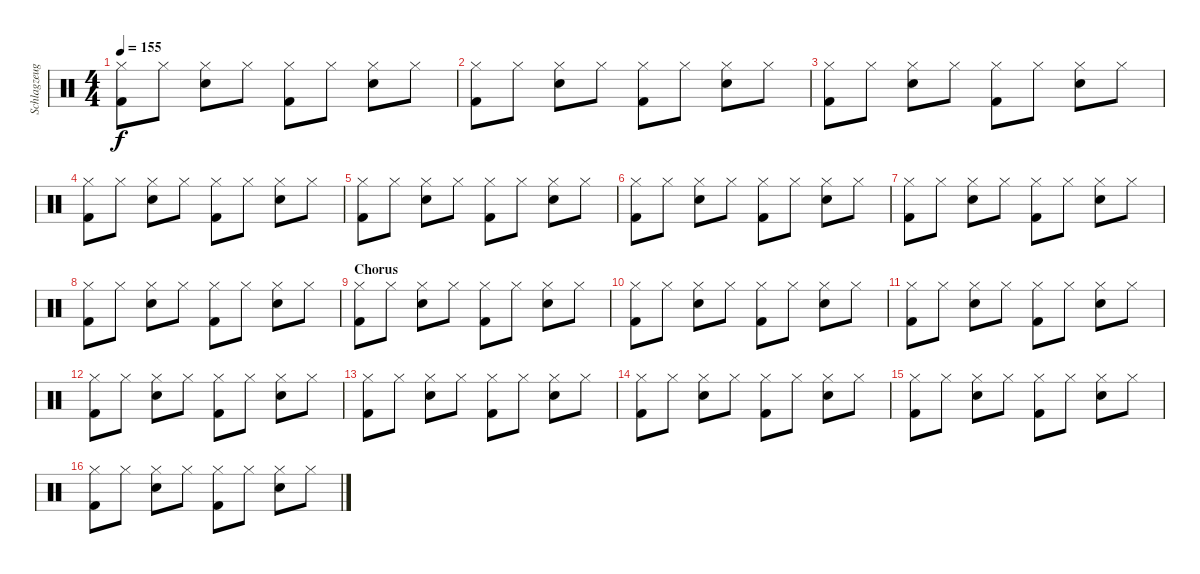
\track ("Schlagzeug - Bela B." "Schlagzeug") {instrument percussion}
\staff {score}
\articulation defaults
\ts (4 4)
\tempo 155
\clef neutral
\ks c
("Hi-Hat (closed)" "Kick (hit) 2").8{dy f} "Hi-Hat (closed)".8 ("Hi-Hat (closed)" "Snare (hit) 2").8 "Hi-Hat (closed)".8 ("Hi-Hat (closed)" "Kick (hit) 2").8 "Hi-Hat (closed)".8 ("Hi-Hat (closed)" "Snare (hit) 2").8 "Hi-Hat (closed)".8 |
("Hi-Hat (closed)" "Kick (hit) 2").8 "Hi-Hat (closed)".8 ("Hi-Hat (closed)" "Snare (hit) 2").8 "Hi-Hat (closed)".8 ("Hi-Hat (closed)" "Kick (hit) 2").8 "Hi-Hat (closed)".8 ("Hi-Hat (closed)" "Snare (hit) 2").8 "Hi-Hat (closed)".8 |
("Hi-Hat (closed)" "Kick (hit) 2").8 "Hi-Hat (closed)".8 ("Hi-Hat (closed)" "Snare (hit) 2").8 "Hi-Hat (closed)".8 ("Hi-Hat (closed)" "Kick (hit) 2").8 "Hi-Hat (closed)".8 ("Hi-Hat (closed)" "Snare (hit) 2").8 "Hi-Hat (closed)".8 |
("Hi-Hat (closed)" "Kick (hit) 2").8 "Hi-Hat (closed)".8 ("Hi-Hat (closed)" "Snare (hit) 2").8 "Hi-Hat (closed)".8 ("Hi-Hat (closed)" "Kick (hit) 2").8 "Hi-Hat (closed)".8 ("Hi-Hat (closed)" "Snare (hit) 2").8 "Hi-Hat (closed)".8 |
("Hi-Hat (closed)" "Kick (hit) 2").8 "Hi-Hat (closed)".8 ("Hi-Hat (closed)" "Snare (hit) 2").8 "Hi-Hat (closed)".8 ("Hi-Hat (closed)" "Kick (hit) 2").8 "Hi-Hat (closed)".8 ("Hi-Hat (closed)" "Snare (hit) 2").8 "Hi-Hat (closed)".8 |
("Hi-Hat (closed)" "Kick (hit) 2").8 "Hi-Hat (closed)".8 ("Hi-Hat (closed)" "Snare (hit) 2").8 "Hi-Hat (closed)".8 ("Hi-Hat (closed)" "Kick (hit) 2").8 "Hi-Hat (closed)".8 ("Hi-Hat (closed)" "Snare (hit) 2").8 "Hi-Hat (closed)".8 |
("Hi-Hat (closed)" "Kick (hit) 2").8 "Hi-Hat (closed)".8 ("Hi-Hat (closed)" "Snare (hit) 2").8 "Hi-Hat (closed)".8 ("Hi-Hat (closed)" "Kick (hit) 2").8 "Hi-Hat (closed)".8 ("Hi-Hat (closed)" "Snare (hit) 2").8 "Hi-Hat (closed)".8 |
("Hi-Hat (closed)" "Kick (hit) 2").8 "Hi-Hat (closed)".8 ("Hi-Hat (closed)" "Snare (hit) 2").8 "Hi-Hat (closed)".8 ("Hi-Hat (closed)" "Kick (hit) 2").8 "Hi-Hat (closed)".8 ("Hi-Hat (closed)" "Snare (hit) 2").8 "Hi-Hat (closed)".8 |
\section ("" "Chorus")
("Hi-Hat (closed)" "Kick (hit) 2").8 "Hi-Hat (closed)".8 ("Hi-Hat (closed)" "Snare (hit) 2").8 "Hi-Hat (closed)".8 ("Hi-Hat (closed)" "Kick (hit) 2").8 "Hi-Hat (closed)".8 ("Hi-Hat (closed)" "Snare (hit) 2").8 "Hi-Hat (closed)".8 |
("Hi-Hat (closed)" "Kick (hit) 2").8 "Hi-Hat (closed)".8 ("Hi-Hat (closed)" "Snare (hit) 2").8 "Hi-Hat (closed)".8 ("Hi-Hat (closed)" "Kick (hit) 2").8 "Hi-Hat (closed)".8 ("Hi-Hat (closed)" "Snare (hit) 2").8 "Hi-Hat (closed)".8 |
("Hi-Hat (closed)" "Kick (hit) 2").8 "Hi-Hat (closed)".8 ("Hi-Hat (closed)" "Snare (hit) 2").8 "Hi-Hat (closed)".8 ("Hi-Hat (closed)" "Kick (hit) 2").8 "Hi-Hat (closed)".8 ("Hi-Hat (closed)" "Snare (hit) 2").8 "Hi-Hat (closed)".8 |
("Hi-Hat (closed)" "Kick (hit) 2").8 "Hi-Hat (closed)".8 ("Hi-Hat (closed)" "Snare (hit) 2").8 "Hi-Hat (closed)".8 ("Hi-Hat (closed)" "Kick (hit) 2").8 "Hi-Hat (closed)".8 ("Hi-Hat (closed)" "Snare (hit) 2").8 "Hi-Hat (closed)".8 |
("Hi-Hat (closed)" "Kick (hit) 2").8 "Hi-Hat (closed)".8 ("Hi-Hat (closed)" "Snare (hit) 2").8 "Hi-Hat (closed)".8 ("Hi-Hat (closed)" "Kick (hit) 2").8 "Hi-Hat (closed)".8 ("Hi-Hat (closed)" "Snare (hit) 2").8 "Hi-Hat (closed)".8 |
("Hi-Hat (closed)" "Kick (hit) 2").8 "Hi-Hat (closed)".8 ("Hi-Hat (closed)" "Snare (hit) 2").8 "Hi-Hat (closed)".8 ("Hi-Hat (closed)" "Kick (hit) 2").8 "Hi-Hat (closed)".8 ("Hi-Hat (closed)" "Snare (hit) 2").8 "Hi-Hat (closed)".8 |
("Hi-Hat (closed)" "Kick (hit) 2").8 "Hi-Hat (closed)".8 ("Hi-Hat (closed)" "Snare (hit) 2").8 "Hi-Hat (closed)".8 ("Hi-Hat (closed)" "Kick (hit) 2").8 "Hi-Hat (closed)".8 ("Hi-Hat (closed)" "Snare (hit) 2").8 "Hi-Hat (closed)".8 |
("Hi-Hat (closed)" "Kick (hit) 2").8 "Hi-Hat (closed)".8 ("Hi-Hat (closed)" "Snare (hit) 2").8 "Hi-Hat (closed)".8 ("Hi-Hat (closed)" "Kick (hit) 2").8 "Hi-Hat (closed)".8 ("Hi-Hat (closed)" "Snare (hit) 2").8 "Hi-Hat (closed)".8
